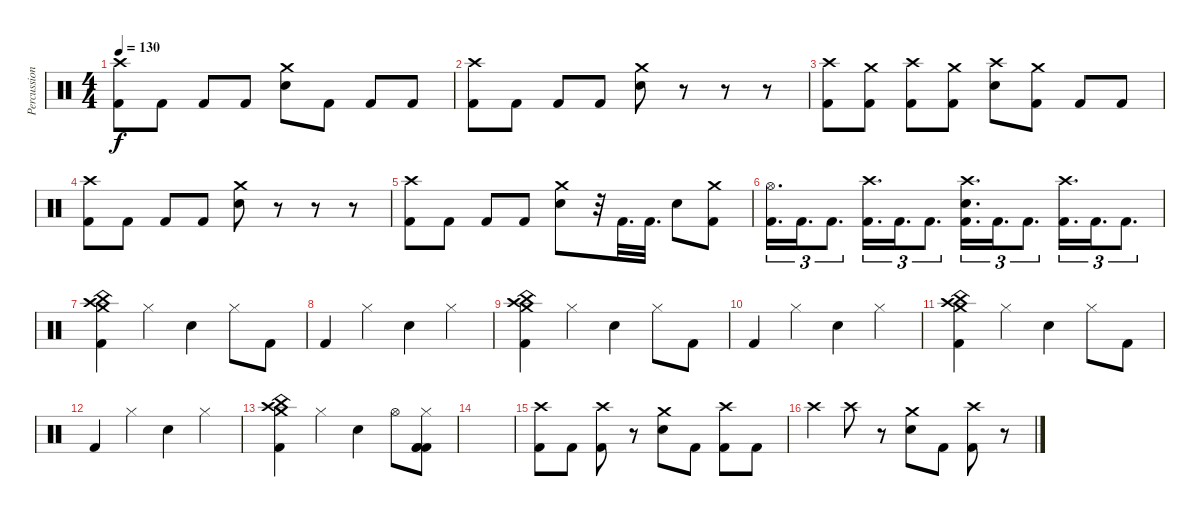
\track ("Percussion" "Percussion") {instrument percussion}
\staff {score}
\articulation defaults
\ts (4 4)
\tempo 130
\clef neutral
\ks c
("Crash high (hit)" "Kick (hit) 2").8{dy f} "Kick (hit) 2".8 "Kick (hit) 2".8 "Kick (hit) 2".8 ("Crash medium (hit)" "Electric Snare (hit)").8 "Kick (hit) 2".8 "Kick (hit) 2".8 "Kick (hit) 2".8 |
("Crash high (hit)" "Kick (hit) 2").8 "Kick (hit) 2".8 "Kick (hit) 2".8 "Kick (hit) 2".8 ("Crash medium (hit)" "Electric Snare (hit)").8 r.8 r.8 r.8 |
("Crash high (hit)" "Kick (hit) 2").8 ("Crash medium (hit)" "Kick (hit) 2").8 ("Crash high (hit)" "Kick (hit) 2").8 ("Crash medium (hit)" "Kick (hit) 2").8 ("Crash high (hit)" "Electric Snare (hit)").8 ("Crash medium (hit)" "Kick (hit) 2").8 "Kick (hit) 2".8 "Kick (hit) 2".8 |
("Crash high (hit)" "Kick (hit) 2").8 "Kick (hit) 2".8 "Kick (hit) 2".8 "Kick (hit) 2".8 ("Crash medium (hit)" "Electric Snare (hit)").8 r.8 r.8 r.8 |
("Crash high (hit)" "Kick (hit) 2").8{volume 13} "Kick (hit) 2".8 "Kick (hit) 2".8 "Kick (hit) 2".8 ("Crash medium (hit)" "Electric Snare (hit)").8 r.32 "Kick (hit) 2".32{d} "Kick (hit) 2".32{d} "Electric Snare (hit)".8 ("Crash medium (hit)" "Kick (hit) 2").8 |
("Hi-Hat (open)" "Kick (hit) 2").16{d tu (3 2)} "Kick (hit) 2".16{d tu (3 2)} "Kick (hit) 2".8{d tu (3 2)} ("Crash high (hit)" "Kick (hit) 2").16{d tu (3 2)} "Kick (hit) 2".16{d tu (3 2)} "Kick (hit) 2".8{d tu (3 2)} ("Crash high (hit)" "Electric Snare (hit)" "Kick (hit) 2").16{d tu (3 2)} "Kick (hit) 2".16{d tu (3 2)} "Kick (hit) 2".8{d tu (3 2)} ("Crash high (hit)" "Kick (hit) 2").16{d tu (3 2)} "Kick (hit) 2".16{d tu (3 2)} "Kick (hit) 2".8{d tu (3 2)} |
("Crash medium (hit)" "China (hit)" "Crash high (hit)" "Kick (hit) 2").4{volume 11} "Hi-Hat (closed)".4 "Electric Snare (hit)".4 "Hi-Hat (closed)".8 "Kick (hit) 2".8 |
"Kick (hit) 2".4 "Hi-Hat (closed)".4 "Electric Snare (hit)".4 "Hi-Hat (closed)".4 |
("Crash medium (hit)" "China (hit)" "Crash high (hit)" "Kick (hit) 2").4 "Hi-Hat (closed)".4 "Electric Snare (hit)".4 "Hi-Hat (closed)".8 "Kick (hit) 2".8 |
"Kick (hit) 2".4 "Hi-Hat (closed)".4 "Electric Snare (hit)".4 "Hi-Hat (closed)".4 |
("Crash medium (hit)" "China (hit)" "Crash high (hit)" "Kick (hit) 2").4 "Hi-Hat (closed)".4 "Electric Snare (hit)".4 "Hi-Hat (closed)".8 "Kick (hit) 2".8 |
"Kick (hit) 2".4 "Hi-Hat (closed)".4 "Electric Snare (hit)".4 "Hi-Hat (closed)".4 |
("Crash medium (hit)" "Crash high (hit)" "China (hit)" "Kick (hit) 2").4 "Hi-Hat (closed)".4 "Electric Snare (hit)".4 "Hi-Hat (open)".8 ("Hi-Hat (closed)" "Kick (hit) 2" "Kick (hit) 2" "Kick (hit) 2").8 |
|
("Kick (hit) 2" "Crash high (hit)").8 "Kick (hit) 2".8 ("Kick (hit) 2" "Crash high (hit)").8 r.8 ("Electric Snare (hit)" "Crash medium (hit)").8 "Kick (hit) 2".8 ("Kick (hit) 2" "Crash high (hit)").8 "Kick (hit) 2".8 |
"Crash high (hit)".4 "Crash high (hit)".8 r.8 ("Electric Snare (hit)" "Crash medium (hit)").8 "Kick (hit) 2".8 ("Kick (hit) 2" "Crash high (hit)").8 r.8
